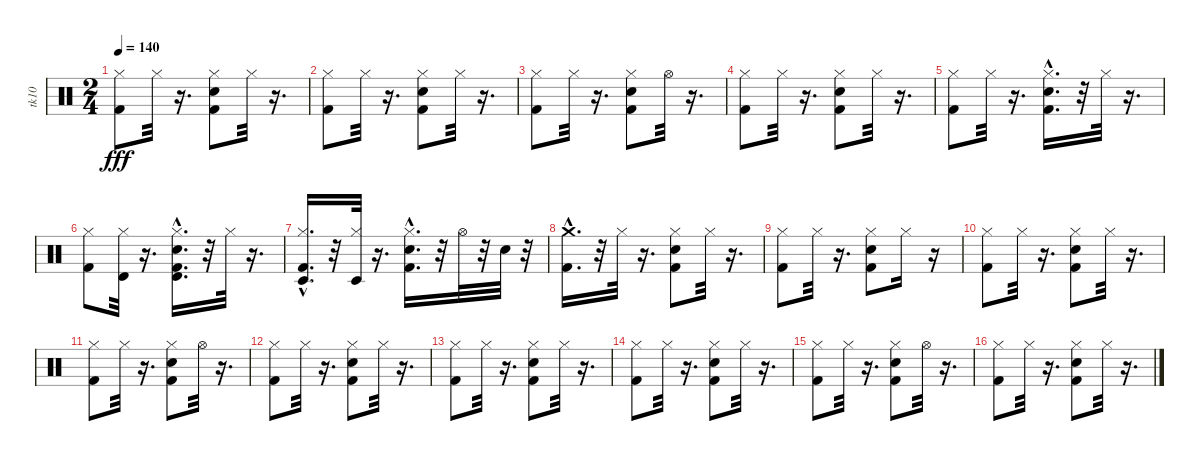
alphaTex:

\track ("tk10" "tk10") {instrument percussion}
\staff {score}
\articulation defaults
\ts (2 4)
\tempo 140
\clef neutral
\ks c
("Kick (hit) 2" "Hi-Hat (closed)").8{dy fff} "Hi-Hat (closed)".32 r.16{d} ("Snare (hit) 2" "Kick (hit) 2" "Hi-Hat (closed)").8 "Hi-Hat (closed)".32 r.16{d} |
("Kick (hit) 2" "Hi-Hat (closed)").8 "Hi-Hat (closed)".32 r.16{d} ("Snare (hit) 2" "Kick (hit) 2" "Hi-Hat (closed)").8 "Hi-Hat (closed)".32 r.16{d} |
("Kick (hit) 2" "Hi-Hat (closed)").8 "Hi-Hat (closed)".32 r.16{d} ("Snare (hit) 2" "Kick (hit) 2" "Hi-Hat (closed)").8 "Hi-Hat (open)".32 r.16{d} |
("Kick (hit) 2" "Hi-Hat (closed)").8 "Hi-Hat (closed)".32 r.16{d} ("Snare (hit) 2" "Kick (hit) 2" "Hi-Hat (closed)").8 "Hi-Hat (closed)".32 r.16{d} |
("Kick (hit) 2" "Hi-Hat (closed)").8 "Hi-Hat (closed)".32 r.16{d} ("Hi-Hat (closed)" "Snare (hit) 2"{hac} "Kick (hit) 2"{hac}).16{d} r.32 "Hi-Hat (closed)".32 r.16{d} |
("Kick (hit) 2" "Hi-Hat (closed)").8 ("Timbale high (hit)" "Hi-Hat (closed)").32 r.16{d} ("Snare (hit) 2"{hac} "Hi-Hat (closed)" "Kick (hit) 2"{hac} "Timbale high (hit)").16{d} r.32 "Hi-Hat (closed)".32 r.16{d} |
("Kick (hit) 2"{hac} "Timbale low (hit)" "Hi-Hat (closed)").16{d} r.32 ("Timbale low (hit)" "Hi-Hat (closed)").32 r.16{d} ("Snare (hit) 2"{hac} "Kick (hit) 2"{hac} "Hi-Hat (closed)").16{d} r.32 "Hi-Hat (open)".32 r.32 "Snare (hit) 2".32 r.32 |
("Kick (hit) 2"{hac} "Crash medium (hit)").16{d} r.32 "Hi-Hat (closed)".32 r.16{d} ("Hi-Hat (closed)" "Kick (hit) 2" "Snare (hit) 2").8 "Hi-Hat (closed)".32 r.16{d} |
("Kick (hit) 2" "Hi-Hat (closed)").8 "Hi-Hat (closed)".32 r.16{d} ("Snare (hit) 2" "Kick (hit) 2" "Hi-Hat (closed)").8 "Hi-Hat (closed)".16 r.16 |
("Kick (hit) 2" "Hi-Hat (closed)").8 "Hi-Hat (closed)".32 r.16{d} ("Hi-Hat (closed)" "Snare (hit) 2" "Kick (hit) 2").8 "Hi-Hat (closed)".32 r.16{d} |
("Kick (hit) 2" "Hi-Hat (closed)").8 "Hi-Hat (closed)".32 r.16{d} ("Snare (hit) 2" "Hi-Hat (closed)" "Kick (hit) 2").8 "Hi-Hat (open)".32 r.16{d} |
("Kick (hit) 2" "Hi-Hat (closed)").8 "Hi-Hat (closed)".32 r.16{d} ("Snare (hit) 2" "Kick (hit) 2" "Hi-Hat (closed)").8 "Hi-Hat (closed)".32 r.16{d} |
("Kick (hit) 2" "Hi-Hat (closed)").8 "Hi-Hat (closed)".32 r.16{d} ("Snare (hit) 2" "Kick (hit) 2" "Hi-Hat (closed)").8 "Hi-Hat (closed)".32 r.16{d} |
("Kick (hit) 2" "Hi-Hat (closed)").8 "Hi-Hat (closed)".32 r.16{d} ("Snare (hit) 2" "Kick (hit) 2" "Hi-Hat (closed)").8 "Hi-Hat (closed)".32 r.16{d} |
("Kick (hit) 2" "Hi-Hat (closed)").8 "Hi-Hat (closed)".32 r.16{d} ("Hi-Hat (closed)" "Snare (hit) 2" "Kick (hit) 2").8 "Hi-Hat (open)".32 r.16{d} |
("Kick (hit) 2" "Hi-Hat (closed)").8 "Hi-Hat (closed)".32 r.16{d} ("Snare (hit) 2" "Kick (hit) 2" "Hi-Hat (closed)").8 "Hi-Hat (closed)".32 r.16{d}
